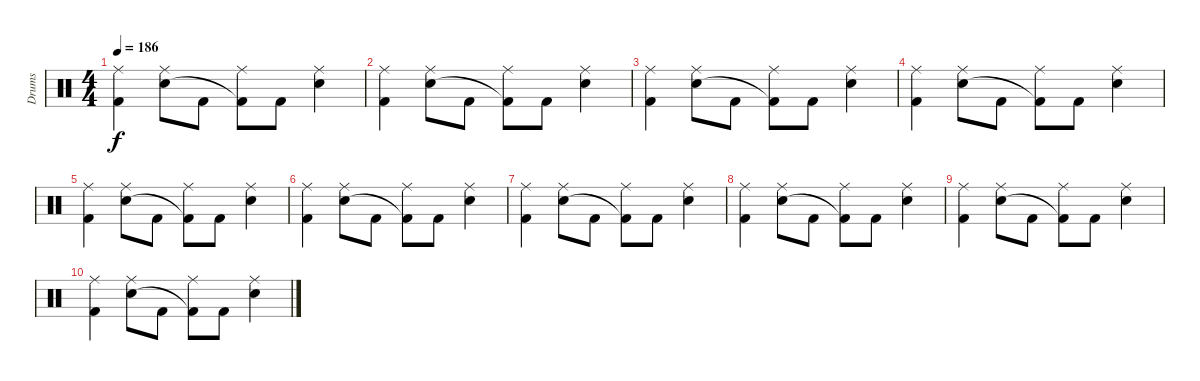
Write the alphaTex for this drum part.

\track ("Drums" "Drums") {instrument percussion}
\staff {score}
\articulation defaults
\ts (4 4)
\tempo 186
\clef neutral
\ks c
("Ride (middle)" "Kick (hit) 2").4{dy f} ("Ride (middle)" "Electric Snare (hit)").8 "Kick (hit) 2".8 ("Ride (middle)" "Kick (hit) 2"{t}).8 "Kick (hit) 2".8 ("Ride (middle)" "Electric Snare (hit)").4 |
("Ride (middle)" "Kick (hit) 2").4 ("Ride (middle)" "Electric Snare (hit)").8 "Kick (hit) 2".8 ("Ride (middle)" "Kick (hit) 2"{t}).8 "Kick (hit) 2".8 ("Ride (middle)" "Electric Snare (hit)").4 |
("Ride (middle)" "Kick (hit) 2").4 ("Ride (middle)" "Electric Snare (hit)").8 "Kick (hit) 2".8 ("Ride (middle)" "Kick (hit) 2"{t}).8 "Kick (hit) 2".8 ("Ride (middle)" "Electric Snare (hit)").4 |
("Ride (middle)" "Kick (hit) 2").4 ("Ride (middle)" "Electric Snare (hit)").8 "Kick (hit) 2".8 ("Ride (middle)" "Kick (hit) 2"{t}).8 "Kick (hit) 2".8 ("Ride (middle)" "Electric Snare (hit)").4 |
("Ride (middle)" "Kick (hit) 2").4 ("Ride (middle)" "Electric Snare (hit)").8 "Kick (hit) 2".8 ("Ride (middle)" "Kick (hit) 2"{t}).8 "Kick (hit) 2".8 ("Ride (middle)" "Electric Snare (hit)").4 |
("Ride (middle)" "Kick (hit) 2").4 ("Ride (middle)" "Electric Snare (hit)").8 "Kick (hit) 2".8 ("Ride (middle)" "Kick (hit) 2"{t}).8 "Kick (hit) 2".8 ("Ride (middle)" "Electric Snare (hit)").4 |
("Ride (middle)" "Kick (hit) 2").4{volume 8} ("Ride (middle)" "Electric Snare (hit)").8 "Kick (hit) 2".8 ("Ride (middle)" "Kick (hit) 2"{t}).8 "Kick (hit) 2".8 ("Ride (middle)" "Electric Snare (hit)").4 |
("Ride (middle)" "Kick (hit) 2").4 ("Ride (middle)" "Electric Snare (hit)").8 "Kick (hit) 2".8 ("Ride (middle)" "Kick (hit) 2"{t}).8 "Kick (hit) 2".8 ("Ride (middle)" "Electric Snare (hit)").4 |
("Ride (middle)" "Kick (hit) 2").4{volume 0} ("Ride (middle)" "Electric Snare (hit)").8 "Kick (hit) 2".8 ("Ride (middle)" "Kick (hit) 2"{t}).8 "Kick (hit) 2".8 ("Ride (middle)" "Electric Snare (hit)").4 |
("Ride (middle)" "Kick (hit) 2").4 ("Ride (middle)" "Electric Snare (hit)").8 "Kick (hit) 2".8 ("Ride (middle)" "Kick (hit) 2"{t}).8 "Kick (hit) 2".8 ("Ride (middle)" "Electric Snare (hit)").4
